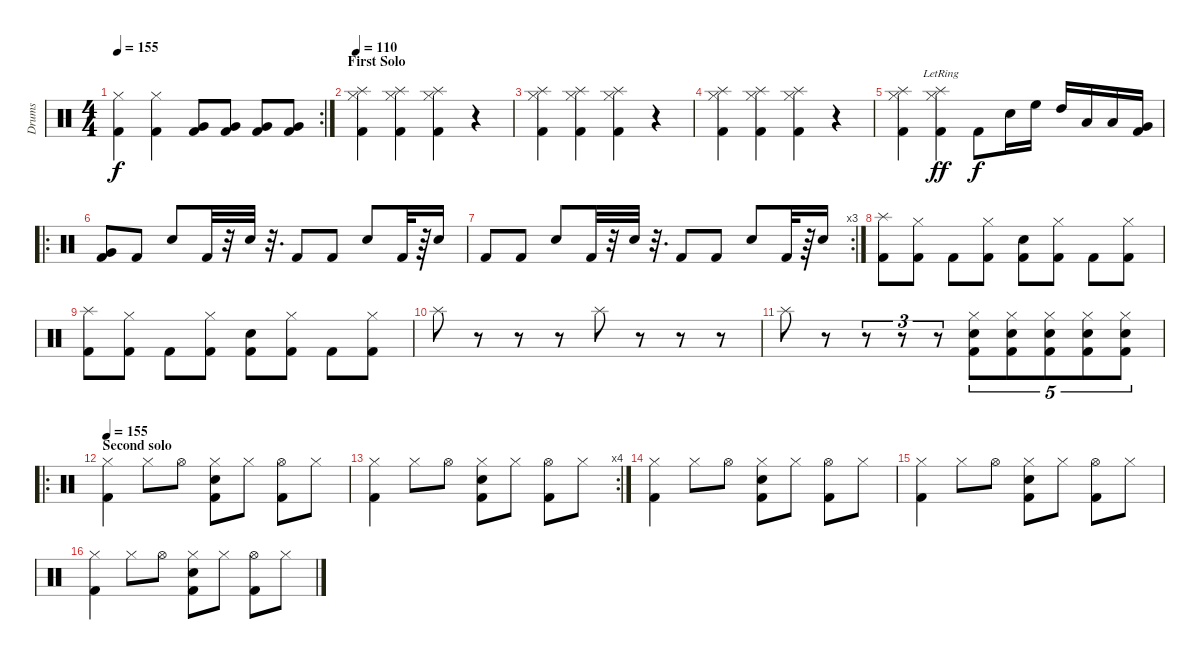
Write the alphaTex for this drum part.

\track ("Drums" "Drums") {instrument percussion}
\staff {score}
\articulation defaults
\rc 2
\ts (4 4)
\tempo 155
\clef neutral
\ks c
("Hi-Hat (closed)" "Kick (hit) 2").4{dy f} ("Hi-Hat (closed)" "Kick (hit) 2").4 ("Very Low Tom (hit)" "Kick (hit) 2").8 ("Very Low Tom (hit)" "Kick (hit) 2").8 ("Very Low Tom (hit)" "Kick (hit) 2").8 ("Very Low Tom (hit)" "Kick (hit) 2").8 |
\section ("" "First Solo")
\tempo 110
("Splash (hit)" "Hi-Hat (closed)" "Kick (hit) 2").4 ("Splash (hit)" "Hi-Hat (closed)" "Kick (hit) 2").4 ("Splash (hit)" "Hi-Hat (closed)" "Kick (hit) 2").4 r.4 |
("Splash (hit)" "Hi-Hat (closed)" "Kick (hit) 2").4 ("Splash (hit)" "Hi-Hat (closed)" "Kick (hit) 2").4 ("Splash (hit)" "Hi-Hat (closed)" "Kick (hit) 2").4 r.4 |
("Splash (hit)" "Hi-Hat (closed)" "Kick (hit) 2").4 ("Splash (hit)" "Hi-Hat (closed)" "Kick (hit) 2").4 ("Splash (hit)" "Hi-Hat (closed)" "Kick (hit) 2").4 r.4 |
("Splash (hit)" "Hi-Hat (closed)" "Kick (hit) 2").4 ("Splash (hit)"{lr} "Hi-Hat (closed)" "Kick (hit) 2").4{dy ff} "Kick (hit) 2".8{dy f} "Snare (hit) 2".16 "High Floor Tom (hit)".16 "High Tom (hit)".16 "Low Tom (hit)".16 "Low Tom (hit)".16 ("Very Low Tom (hit)" "Kick (hit) 2").16 |
\ro
("Very Low Tom (hit)" "Kick (hit) 2").8 "Kick (hit) 2".8 "Snare (hit) 2".8 "Kick (hit) 2".32 r.32 "Snare (hit) 2".32 r.32{d} "Kick (hit) 2".8 "Kick (hit) 2".8 "Snare (hit) 2".8 "Kick (hit) 2".32 r.64 "Snare (hit) 2".16 |
\rc 3 "Kick (hit) 2".8 "Kick (hit) 2".8 "Snare (hit) 2".8 "Kick (hit) 2".32
r.32 "Snare (hit) 2".32 r.32{d} "Kick (hit) 2".8 "Kick (hit) 2".8 "Snare (hit) 2".8 "Kick (hit) 2".32 r.64 "Snare (hit) 2".16 |
("Splash (hit)" "Kick (hit) 2").8 ("Hi-Hat (closed)" "Kick (hit) 2").8 "Kick (hit) 2".8 ("Hi-Hat (closed)" "Kick (hit) 2").8 ("Snare (hit) 2" "Kick (hit) 2").8 ("Hi-Hat (closed)" "Kick (hit) 2").8 "Kick (hit) 2".8 ("Hi-Hat (closed)" "Kick (hit) 2").8 |
("Splash (hit)" "Kick (hit) 2").8 ("Hi-Hat (closed)" "Kick (hit) 2").8 "Kick (hit) 2".8 ("Hi-Hat (closed)" "Kick (hit) 2").8 ("Snare (hit) 2" "Kick (hit) 2").8 ("Hi-Hat (closed)" "Kick (hit) 2").8 "Kick (hit) 2".8 ("Hi-Hat (closed)" "Kick (hit) 2").8 |
"Splash (hit)".8 r.8 r.8 r.8 "Splash (hit)".8 r.8 r.8 r.8 |
"Splash (hit)".8 r.8 r.8{tu (3 2)} r.8{tu (3 2)} r.8{tu (3 2)} ("Hi-Hat (closed)" "Snare (hit) 2" "Kick (hit) 2").8{tu (5 4)} ("Hi-Hat (closed)" "Snare (hit) 2" "Kick (hit) 2").8{tu (5 4)} ("Hi-Hat (closed)" "Snare (hit) 2" "Kick (hit) 2").8{tu (5 4)} ("Hi-Hat (closed)" "Snare (hit) 2" "Kick (hit) 2").8{tu (5 4)} ("Hi-Hat (closed)" "Snare (hit) 2" "Kick (hit) 2").8{tu (5 4)} |
\ro
\section ("" "Second solo")
\tempo 155
("Hi-Hat (closed)" "Kick (hit) 2").4 "Hi-Hat (closed)".8 "Hi-Hat (open)".8 ("Hi-Hat (closed)" "Snare (hit) 2" "Kick (hit) 2").8 "Hi-Hat (closed)".8 ("Hi-Hat (open)" "Kick (hit) 2").8 "Hi-Hat (closed)".8 |
\rc 4
("Hi-Hat (closed)" "Kick (hit) 2").4 "Hi-Hat (closed)".8 "Hi-Hat (open)".8 ("Hi-Hat (closed)" "Snare (hit) 2" "Kick (hit) 2").8 "Hi-Hat (closed)".8 ("Hi-Hat (open)" "Kick (hit) 2").8 "Hi-Hat (closed)".8 |
("Hi-Hat (closed)" "Kick (hit) 2").4 "Hi-Hat (closed)".8 "Hi-Hat (open)".8 ("Hi-Hat (closed)" "Snare (hit) 2" "Kick (hit) 2").8 "Hi-Hat (closed)".8 ("Hi-Hat (open)" "Kick (hit) 2").8 "Hi-Hat (closed)".8 |
("Hi-Hat (closed)" "Kick (hit) 2").4 "Hi-Hat (closed)".8 "Hi-Hat (open)".8 ("Hi-Hat (closed)" "Snare (hit) 2" "Kick (hit) 2").8 "Hi-Hat (closed)".8 ("Hi-Hat (open)" "Kick (hit) 2").8 "Hi-Hat (closed)".8 |
("Hi-Hat (closed)" "Kick (hit) 2").4 "Hi-Hat (closed)".8 "Hi-Hat (open)".8 ("Hi-Hat (closed)" "Snare (hit) 2" "Kick (hit) 2").8 "Hi-Hat (closed)".8 ("Hi-Hat (open)" "Kick (hit) 2").8 "Hi-Hat (closed)".8
